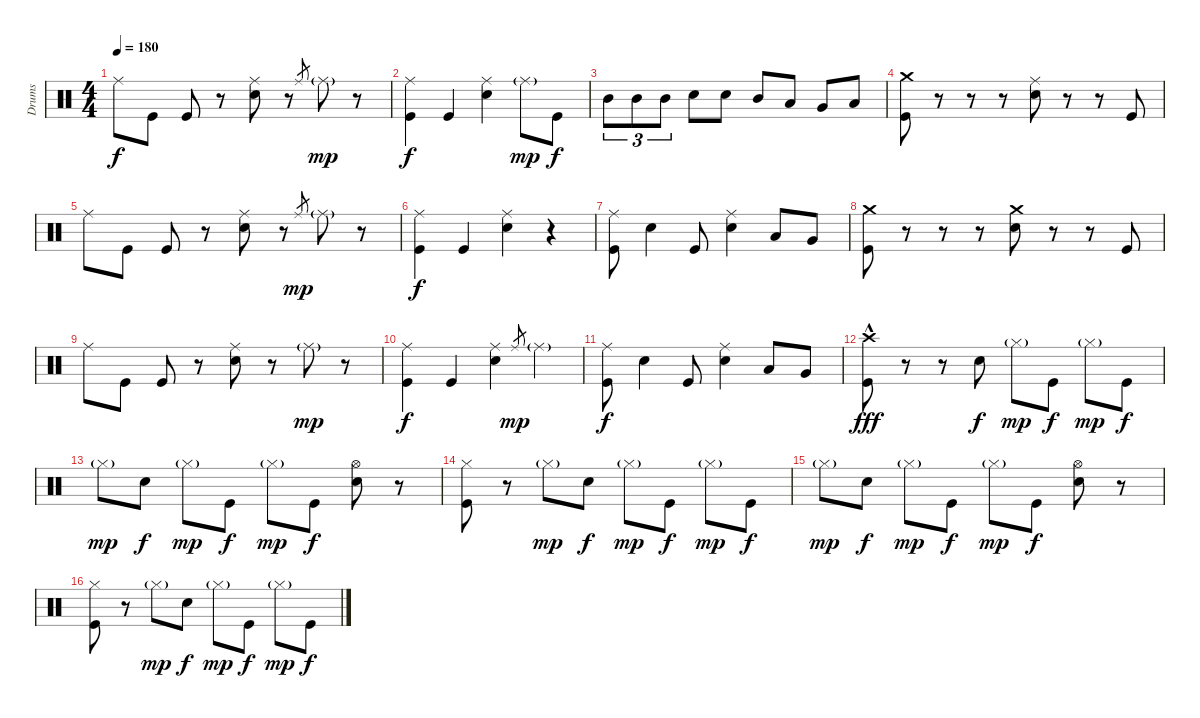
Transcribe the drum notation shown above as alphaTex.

\track ("Drums" "Drums") {instrument percussion}
\staff {score}
\articulation defaults
\ts (4 4)
\tempo 180
\clef neutral
\ks c "Ride (middle)".8{dy f} "Kick (hit)".8 "Kick (hit)".8
r.8 ("Ride (middle)" "Electric Snare (hit)").8 r.8 "Ride (middle)".8{gr} "Ride (middle)"{g}.8{dy mp} r.8 |
("Ride (middle)" "Kick (hit)").4{dy f} "Kick (hit)".4 ("Ride (middle)" "Electric Snare (hit)").4 "Ride (middle)"{g}.8{dy mp} "Kick (hit)".8{dy f} |
"Mid Tom (hit)".8{tu (3 2)} "Mid Tom (hit)".8{tu (3 2)} "Mid Tom (hit)".8{tu (3 2)} "Electric Snare (hit)".8 "Electric Snare (hit)".8 "Mid Tom (hit)".8 "Low Tom (hit)".8 "Very Low Tom (hit)".8 "Low Floor Tom (hit)".8 |
("Crash medium (hit)" "Kick (hit)").8 r.8 r.8 r.8 ("Ride (middle)" "Electric Snare (hit)").8 r.8 r.8 "Kick (hit)".8 |
"Ride (middle)".8 "Kick (hit)".8 "Kick (hit)".8 r.8 ("Ride (middle)" "Electric Snare (hit)").8 r.8 "Ride (middle)".8{gr dy mp} "Ride (middle)"{g}.8 r.8 |
("Ride (middle)" "Kick (hit)").4{dy f} "Kick (hit)".4 ("Ride (middle)" "Electric Snare (hit)").4 r.4 |
("Ride (middle)" "Kick (hit)").8 "Electric Snare (hit)".4 "Kick (hit)".8 ("Ride (middle)" "Electric Snare (hit)").4 "Low Tom (hit)".8 "Very Low Tom (hit)".8 |
("Crash medium (hit)" "Kick (hit)").8 r.8 r.8 r.8 ("Crash medium (hit)" "Electric Snare (hit)").8 r.8 r.8 "Kick (hit)".8 |
"Ride (middle)".8 "Kick (hit)".8 "Kick (hit)".8 r.8 ("Ride (middle)" "Electric Snare (hit)").8 r.8 "Ride (middle)"{g}.8{dy mp} r.8 |
("Ride (middle)" "Kick (hit)").4{dy f} "Kick (hit)".4 ("Ride (middle)" "Electric Snare (hit)").4 "Ride (middle)".8{gr dy mp} "Ride (middle)"{g}.4 |
("Ride (middle)" "Kick (hit)").8{dy f} "Electric Snare (hit)".4 "Kick (hit)".8 ("Ride (middle)" "Electric Snare (hit)").4 "Low Tom (hit)".8 "Very Low Tom (hit)".8 |
("Crash high (hit)" "Kick (hit)"{hac}).8{dy fff} r.8 r.8 "Electric Snare (hit)".8{dy f} "Hi-Hat (closed)"{g}.8{dy mp} "Kick (hit)".8{dy f} "Hi-Hat (closed)"{g}.8{dy mp} "Kick (hit)".8{dy f} |
"Hi-Hat (closed)"{g}.8{dy mp} "Electric Snare (hit)".8{dy f} "Hi-Hat (closed)"{g}.8{dy mp} "Kick (hit)".8{dy f} "Hi-Hat (closed)"{g}.8{dy mp} "Kick (hit)".8{dy f} ("Hi-Hat (open)" "Electric Snare (hit)").8 r.8 |
("Hi-Hat (closed)" "Kick (hit)").8 r.8 "Hi-Hat (closed)"{g}.8{dy mp} "Electric Snare (hit)".8{dy f} "Hi-Hat (closed)"{g}.8{dy mp} "Kick (hit)".8{dy f} "Hi-Hat (closed)"{g}.8{dy mp} "Kick (hit)".8{dy f} |
"Hi-Hat (closed)"{g}.8{dy mp} "Electric Snare (hit)".8{dy f} "Hi-Hat (closed)"{g}.8{dy mp} "Kick (hit)".8{dy f} "Hi-Hat (closed)"{g}.8{dy mp} "Kick (hit)".8{dy f} ("Hi-Hat (open)" "Electric Snare (hit)").8 r.8 |
("Hi-Hat (closed)" "Kick (hit)").8 r.8 "Hi-Hat (closed)"{g}.8{dy mp} "Electric Snare (hit)".8{dy f} "Hi-Hat (closed)"{g}.8{dy mp} "Kick (hit)".8{dy f} "Hi-Hat (closed)"{g}.8{dy mp} "Kick (hit)".8{dy f}
